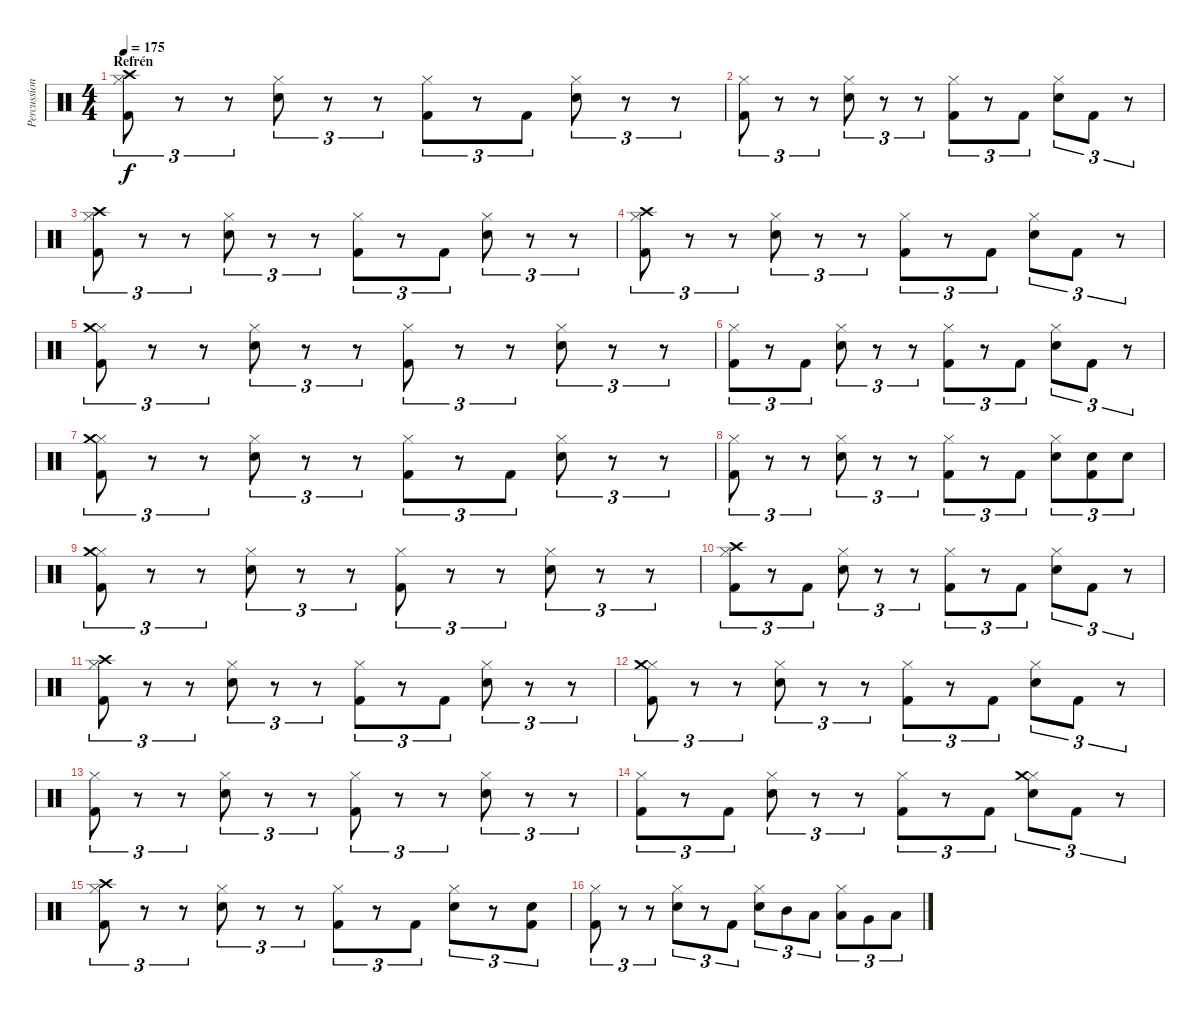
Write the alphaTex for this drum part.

\track ("Percussion" "Percussion") {instrument percussion}
\staff {score}
\articulation defaults
\ts (4 4)
\section ("" "Refrén")
\tempo 175
\clef neutral
\ks c
("Hi-Hat (closed)" "Crash high (hit)" "Kick (hit) 2").8{tu (3 2) dy f} r.8{tu (3 2)} r.8{tu (3 2)} ("Hi-Hat (closed)" "Electric Snare (hit)").8{tu (3 2)} r.8{tu (3 2)} r.8{tu (3 2)} ("Hi-Hat (closed)" "Kick (hit) 2").8{tu (3 2)} r.8{tu (3 2)} "Kick (hit) 2".8{tu (3 2)} ("Hi-Hat (closed)" "Electric Snare (hit)").8{tu (3 2)} r.8{tu (3 2)} r.8{tu (3 2)} |
("Hi-Hat (closed)" "Kick (hit) 2").8{tu (3 2)} r.8{tu (3 2)} r.8{tu (3 2)} ("Hi-Hat (closed)" "Electric Snare (hit)").8{tu (3 2)} r.8{tu (3 2)} r.8{tu (3 2)} ("Hi-Hat (closed)" "Kick (hit) 2").8{tu (3 2)} r.8{tu (3 2)} "Kick (hit) 2".8{tu (3 2)} ("Hi-Hat (closed)" "Electric Snare (hit)").8{tu (3 2)} "Kick (hit) 2".8{tu (3 2)} r.8{tu (3 2)} |
("Hi-Hat (closed)" "Kick (hit) 2" "Crash high (hit)").8{tu (3 2)} r.8{tu (3 2)} r.8{tu (3 2)} ("Hi-Hat (closed)" "Electric Snare (hit)").8{tu (3 2)} r.8{tu (3 2)} r.8{tu (3 2)} ("Hi-Hat (closed)" "Kick (hit) 2").8{tu (3 2)} r.8{tu (3 2)} "Kick (hit) 2".8{tu (3 2)} ("Hi-Hat (closed)" "Electric Snare (hit)").8{tu (3 2)} r.8{tu (3 2)} r.8{tu (3 2)} |
("Hi-Hat (closed)" "Kick (hit) 2" "Crash high (hit)").8{tu (3 2)} r.8{tu (3 2)} r.8{tu (3 2)} ("Hi-Hat (closed)" "Electric Snare (hit)").8{tu (3 2)} r.8{tu (3 2)} r.8{tu (3 2)} ("Hi-Hat (closed)" "Kick (hit) 2").8{tu (3 2)} r.8{tu (3 2)} "Kick (hit) 2".8{tu (3 2)} ("Hi-Hat (closed)" "Electric Snare (hit)").8{tu (3 2)} "Kick (hit) 2".8{tu (3 2)} r.8{tu (3 2)} |
("Hi-Hat (closed)" "Kick (hit) 2" "Crash medium (hit)").8{tu (3 2)} r.8{tu (3 2)} r.8{tu (3 2)} ("Hi-Hat (closed)" "Electric Snare (hit)").8{tu (3 2)} r.8{tu (3 2)} r.8{tu (3 2)} ("Hi-Hat (closed)" "Kick (hit) 2").8{tu (3 2)} r.8{tu (3 2)} r.8{tu (3 2)} ("Hi-Hat (closed)" "Electric Snare (hit)").8{tu (3 2)} r.8{tu (3 2)} r.8{tu (3 2)} |
("Hi-Hat (closed)" "Kick (hit) 2").8{tu (3 2)} r.8{tu (3 2)} "Kick (hit) 2".8{tu (3 2)} ("Hi-Hat (closed)" "Electric Snare (hit)").8{tu (3 2)} r.8{tu (3 2)} r.8{tu (3 2)} ("Hi-Hat (closed)" "Kick (hit) 2").8{tu (3 2)} r.8{tu (3 2)} "Kick (hit) 2".8{tu (3 2)} ("Hi-Hat (closed)" "Electric Snare (hit)").8{tu (3 2)} "Kick (hit) 2".8{tu (3 2)} r.8{tu (3 2)} |
("Hi-Hat (closed)" "Kick (hit) 2" "Crash medium (hit)").8{tu (3 2)} r.8{tu (3 2)} r.8{tu (3 2)} ("Hi-Hat (closed)" "Electric Snare (hit)").8{tu (3 2)} r.8{tu (3 2)} r.8{tu (3 2)} ("Hi-Hat (closed)" "Kick (hit) 2").8{tu (3 2)} r.8{tu (3 2)} "Kick (hit) 2".8{tu (3 2)} ("Hi-Hat (closed)" "Electric Snare (hit)").8{tu (3 2)} r.8{tu (3 2)} r.8{tu (3 2)} |
("Hi-Hat (closed)" "Kick (hit) 2").8{tu (3 2)} r.8{tu (3 2)} r.8{tu (3 2)} ("Hi-Hat (closed)" "Electric Snare (hit)").8{tu (3 2)} r.8{tu (3 2)} r.8{tu (3 2)} ("Hi-Hat (closed)" "Kick (hit) 2").8{tu (3 2)} r.8{tu (3 2)} "Kick (hit) 2".8{tu (3 2)} ("Hi-Hat (closed)" "Electric Snare (hit)").8{tu (3 2)} ("Kick (hit) 2" "Electric Snare (hit)").8{tu (3 2)} "Electric Snare (hit)".8{tu (3 2)} |
("Hi-Hat (closed)" "Kick (hit) 2" "Crash medium (hit)").8{tu (3 2)} r.8{tu (3 2)} r.8{tu (3 2)} ("Hi-Hat (closed)" "Electric Snare (hit)").8{tu (3 2)} r.8{tu (3 2)} r.8{tu (3 2)} ("Hi-Hat (closed)" "Kick (hit) 2").8{tu (3 2)} r.8{tu (3 2)} r.8{tu (3 2)} ("Hi-Hat (closed)" "Electric Snare (hit)").8{tu (3 2)} r.8{tu (3 2)} r.8{tu (3 2)} |
("Hi-Hat (closed)" "Kick (hit) 2" "Crash high (hit)").8{tu (3 2)} r.8{tu (3 2)} "Kick (hit) 2".8{tu (3 2)} ("Hi-Hat (closed)" "Electric Snare (hit)").8{tu (3 2)} r.8{tu (3 2)} r.8{tu (3 2)} ("Hi-Hat (closed)" "Kick (hit) 2").8{tu (3 2)} r.8{tu (3 2)} "Kick (hit) 2".8{tu (3 2)} ("Hi-Hat (closed)" "Electric Snare (hit)").8{tu (3 2)} "Kick (hit) 2".8{tu (3 2)} r.8{tu (3 2)} |
("Hi-Hat (closed)" "Kick (hit) 2" "Crash high (hit)").8{tu (3 2)} r.8{tu (3 2)} r.8{tu (3 2)} ("Hi-Hat (closed)" "Electric Snare (hit)").8{tu (3 2)} r.8{tu (3 2)} r.8{tu (3 2)} ("Hi-Hat (closed)" "Kick (hit) 2").8{tu (3 2)} r.8{tu (3 2)} "Kick (hit) 2".8{tu (3 2)} ("Hi-Hat (closed)" "Electric Snare (hit)").8{tu (3 2)} r.8{tu (3 2)} r.8{tu (3 2)} |
("Hi-Hat (closed)" "Kick (hit) 2" "Crash medium (hit)").8{tu (3 2)} r.8{tu (3 2)} r.8{tu (3 2)} ("Hi-Hat (closed)" "Electric Snare (hit)").8{tu (3 2)} r.8{tu (3 2)} r.8{tu (3 2)} ("Hi-Hat (closed)" "Kick (hit) 2").8{tu (3 2)} r.8{tu (3 2)} "Kick (hit) 2".8{tu (3 2)} ("Hi-Hat (closed)" "Electric Snare (hit)").8{tu (3 2)} "Kick (hit) 2".8{tu (3 2)} r.8{tu (3 2)} |
("Hi-Hat (closed)" "Kick (hit) 2").8{tu (3 2)} r.8{tu (3 2)} r.8{tu (3 2)} ("Hi-Hat (closed)" "Electric Snare (hit)").8{tu (3 2)} r.8{tu (3 2)} r.8{tu (3 2)} ("Hi-Hat (closed)" "Kick (hit) 2").8{tu (3 2)} r.8{tu (3 2)} r.8{tu (3 2)} ("Hi-Hat (closed)" "Electric Snare (hit)").8{tu (3 2)} r.8{tu (3 2)} r.8{tu (3 2)} |
("Hi-Hat (closed)" "Kick (hit) 2").8{tu (3 2)} r.8{tu (3 2)} "Kick (hit) 2".8{tu (3 2)} ("Hi-Hat (closed)" "Electric Snare (hit)").8{tu (3 2)} r.8{tu (3 2)} r.8{tu (3 2)} ("Hi-Hat (closed)" "Kick (hit) 2").8{tu (3 2)} r.8{tu (3 2)} "Kick (hit) 2".8{tu (3 2)} ("Hi-Hat (closed)" "Crash medium (hit)" "Electric Snare (hit)").8{tu (3 2)} "Kick (hit) 2".8{tu (3 2)} r.8{tu (3 2)} |
("Hi-Hat (closed)" "Crash high (hit)" "Kick (hit) 2").8{tu (3 2)} r.8{tu (3 2)} r.8{tu (3 2)} ("Hi-Hat (closed)" "Electric Snare (hit)").8{tu (3 2)} r.8{tu (3 2)} r.8{tu (3 2)} ("Hi-Hat (closed)" "Kick (hit) 2").8{tu (3 2)} r.8{tu (3 2)} "Kick (hit) 2".8{tu (3 2)} ("Hi-Hat (closed)" "Electric Snare (hit)").8{tu (3 2)} r.8{tu (3 2)} ("Kick (hit) 2" "Electric Snare (hit)").8{tu (3 2)} |
("Hi-Hat (closed)" "Kick (hit) 2").8{tu (3 2)} r.8{tu (3 2)} r.8{tu (3 2)} ("Hi-Hat (closed)" "Electric Snare (hit)").8{tu (3 2)} r.8{tu (3 2)} "Kick (hit) 2".8{tu (3 2)} ("Hi-Hat (closed)" "Electric Snare (hit)").8{tu (3 2)} "Mid Tom (hit)".8{tu (3 2)} "Low Tom (hit)".8{tu (3 2)} ("Hi-Hat (closed)" "Low Tom (hit)").8{tu (3 2)} "Very Low Tom (hit)".8{tu (3 2)} "Low Floor Tom (hit)".8{tu (3 2)}
